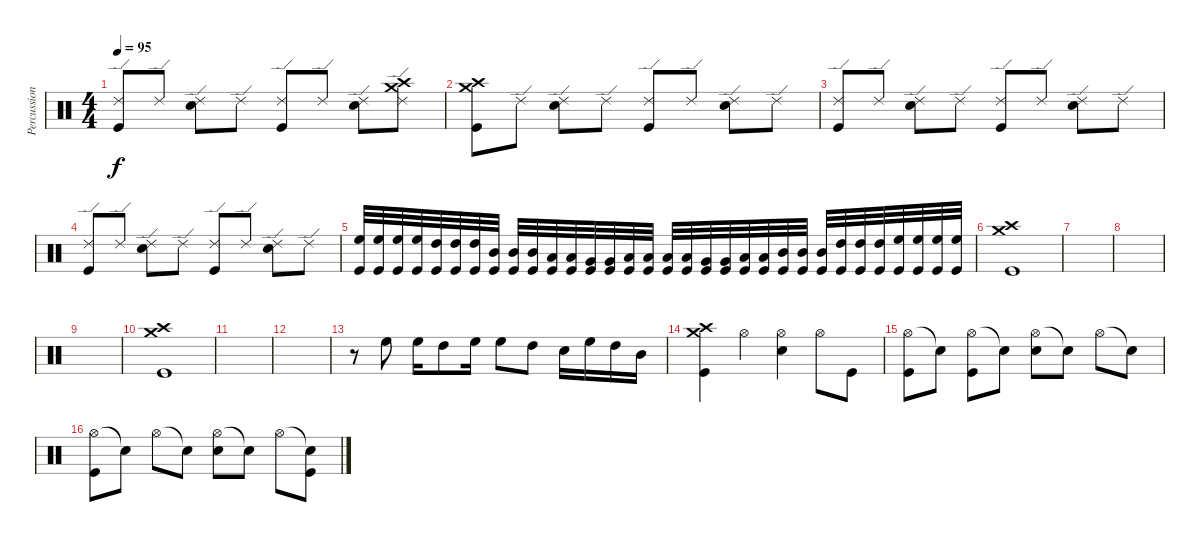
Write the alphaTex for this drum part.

\track ("Percussion" "Percussion") {instrument percussion}
\staff {score}
\articulation defaults
\ts (4 4)
\tempo 95
\clef neutral
\ks c
("Ride (edge) 2" "Kick (hit)").8{dy f} "Ride (edge) 2".8 ("Ride (edge) 2" "Electric Snare (hit)").8 "Ride (edge) 2".8 ("Ride (edge) 2" "Kick (hit)").8 "Ride (edge) 2".8 ("Ride (edge) 2" "Electric Snare (hit)").8 ("Ride (edge) 2" "Crash medium (hit)" "Crash high (hit)").8 |
("Crash high (hit)" "Crash medium (hit)" "Kick (hit)").8 "Ride (edge) 2".8 ("Ride (edge) 2" "Electric Snare (hit)").8 "Ride (edge) 2".8 ("Ride (edge) 2" "Kick (hit)").8 "Ride (edge) 2".8 ("Ride (edge) 2" "Electric Snare (hit)").8 "Ride (edge) 2".8 |
("Ride (edge) 2" "Kick (hit)").8 "Ride (edge) 2".8 ("Ride (edge) 2" "Electric Snare (hit)").8 "Ride (edge) 2".8 ("Ride (edge) 2" "Kick (hit)").8 "Ride (edge) 2".8 ("Ride (edge) 2" "Electric Snare (hit)").8 "Ride (edge) 2".8 |
("Ride (edge) 2" "Kick (hit)").8 "Ride (edge) 2".8 ("Ride (edge) 2" "Electric Snare (hit)").8 "Ride (edge) 2".8 ("Ride (edge) 2" "Kick (hit)").8 "Ride (edge) 2".8 ("Ride (edge) 2" "Electric Snare (hit)").8 "Ride (edge) 2".8 |
("Kick (hit)" "High Floor Tom (hit)").32 ("Kick (hit)" "High Floor Tom (hit)").32 ("Kick (hit)" "High Floor Tom (hit)").32 ("Kick (hit)" "High Floor Tom (hit)").32 ("Kick (hit)" "High Tom (hit)").32 ("Kick (hit)" "High Tom (hit)").32 ("Kick (hit)" "High Tom (hit)").32 ("Kick (hit)" "Mid Tom (hit)").32 ("Kick (hit)" "Mid Tom (hit)").32 ("Kick (hit)" "Mid Tom (hit)").32 ("Kick (hit)" "Low Tom (hit)").32 ("Kick (hit)" "Low Tom (hit)").32 ("Kick (hit)" "Very Low Tom (hit)").32 ("Kick (hit)" "Very Low Tom (hit)").32 ("Kick (hit)" "Low Floor Tom (hit)").32 ("Kick (hit)" "Low Floor Tom (hit)").32 ("Kick (hit)" "Low Floor Tom (hit)").32 ("Kick (hit)" "Low Floor Tom (hit)").32 ("Kick (hit)" "Very Low Tom (hit)").32 ("Kick (hit)" "Very Low Tom (hit)").32 ("Kick (hit)" "Low Tom (hit)").32 ("Kick (hit)" "Low Tom (hit)").32 ("Kick (hit)" "Mid Tom (hit)").32 ("Kick (hit)" "Mid Tom (hit)").32 ("Kick (hit)" "Mid Tom (hit)").32 ("Kick (hit)" "High Tom (hit)").32 ("Kick (hit)" "High Tom (hit)").32 ("Kick (hit)" "High Tom (hit)").32 ("Kick (hit)" "High Floor Tom (hit)").32 ("Kick (hit)" "High Floor Tom (hit)").32 ("Kick (hit)" "High Floor Tom (hit)").32 ("Kick (hit)" "High Floor Tom (hit)").32 |
("Crash medium (hit)" "Crash high (hit)" "Kick (hit)").1 |
|
|
|
("Crash medium (hit)" "Crash high (hit)" "Kick (hit)").1 |
|
|
r.8 "High Floor Tom (hit)".8 "High Floor Tom (hit)".16 "High Tom (hit)".8 "High Floor Tom (hit)".16 "High Floor Tom (hit)".8 "High Tom (hit)".8 "Snare (hit) 2".16 "High Floor Tom (hit)".16 "High Tom (hit)".16 "Mid Tom (hit)".16 |
("Crash medium (hit)" "Crash high (hit)" "Kick (hit)").4 "Hi-Hat (open)".4 ("Hi-Hat (open)" "Snare (hit) 2").4 "Hi-Hat (open)".8 "Kick (hit)".8 |
("Hi-Hat (open)" "Kick (hit)").8 "Snare (hit)"{t}.8 ("Hi-Hat (open)" "Kick (hit)").8 "Snare (hit)"{t}.8 ("Hi-Hat (open)" "Snare (hit) 2").8 "Snare (hit)"{t}.8 "Hi-Hat (open)".8 "Snare (hit)"{t}.8 |
("Hi-Hat (open)" "Kick (hit)").8 "Snare (hit)"{t}.8 "Hi-Hat (open)".8 "Snare (hit)"{t}.8 ("Hi-Hat (open)" "Snare (hit) 2").8 "Snare (hit)"{t}.8 "Hi-Hat (open)".8 ("Snare (hit)"{t} "Kick (hit)").8
